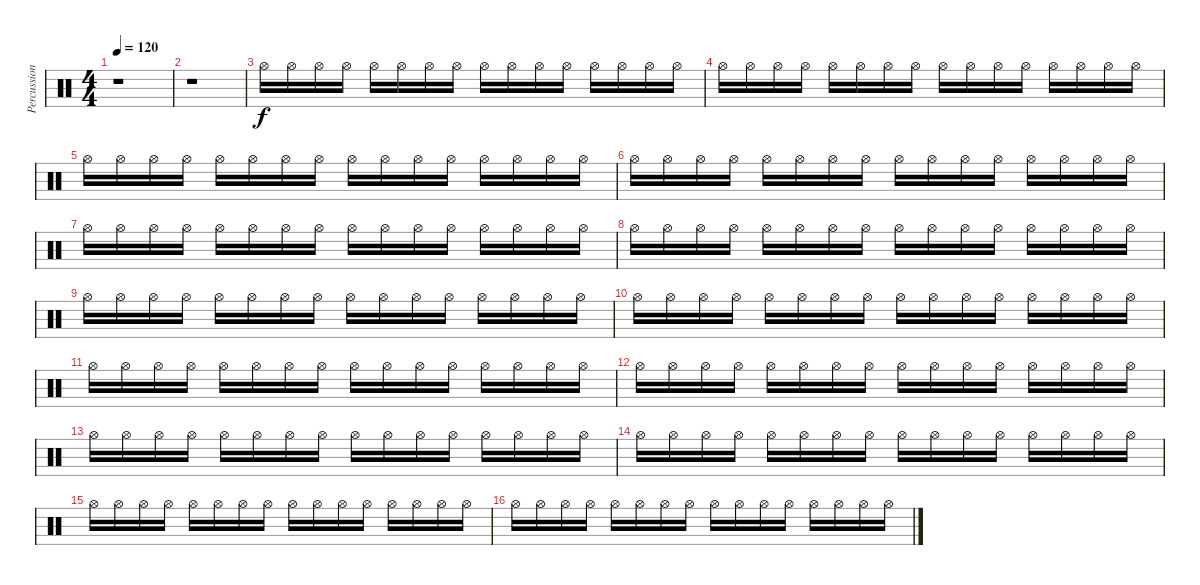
\track ("Percussion" "Percussion") {instrument percussion}
\staff {score}
\articulation defaults
\ts (4 4)
\tempo 120
\clef neutral
\ks c
r.1{dy f} |
r.1 |
"Hi-Hat (open)".16 "Hi-Hat (open)".16 "Hi-Hat (open)".16 "Hi-Hat (open)".16 "Hi-Hat (open)".16 "Hi-Hat (open)".16 "Hi-Hat (open)".16 "Hi-Hat (open)".16 "Hi-Hat (open)".16 "Hi-Hat (open)".16 "Hi-Hat (open)".16 "Hi-Hat (open)".16 "Hi-Hat (open)".16 "Hi-Hat (open)".16 "Hi-Hat (open)".16 "Hi-Hat (open)".16 |
"Hi-Hat (open)".16 "Hi-Hat (open)".16 "Hi-Hat (open)".16 "Hi-Hat (open)".16 "Hi-Hat (open)".16 "Hi-Hat (open)".16 "Hi-Hat (open)".16 "Hi-Hat (open)".16 "Hi-Hat (open)".16 "Hi-Hat (open)".16 "Hi-Hat (open)".16 "Hi-Hat (open)".16 "Hi-Hat (open)".16 "Hi-Hat (open)".16 "Hi-Hat (open)".16 "Hi-Hat (open)".16 |
"Hi-Hat (open)".16 "Hi-Hat (open)".16 "Hi-Hat (open)".16 "Hi-Hat (open)".16 "Hi-Hat (open)".16 "Hi-Hat (open)".16 "Hi-Hat (open)".16 "Hi-Hat (open)".16 "Hi-Hat (open)".16 "Hi-Hat (open)".16 "Hi-Hat (open)".16 "Hi-Hat (open)".16 "Hi-Hat (open)".16 "Hi-Hat (open)".16 "Hi-Hat (open)".16 "Hi-Hat (open)".16 |
"Hi-Hat (open)".16 "Hi-Hat (open)".16 "Hi-Hat (open)".16 "Hi-Hat (open)".16 "Hi-Hat (open)".16 "Hi-Hat (open)".16 "Hi-Hat (open)".16 "Hi-Hat (open)".16 "Hi-Hat (open)".16 "Hi-Hat (open)".16 "Hi-Hat (open)".16 "Hi-Hat (open)".16 "Hi-Hat (open)".16 "Hi-Hat (open)".16 "Hi-Hat (open)".16 "Hi-Hat (open)".16 |
"Hi-Hat (open)".16 "Hi-Hat (open)".16 "Hi-Hat (open)".16 "Hi-Hat (open)".16 "Hi-Hat (open)".16 "Hi-Hat (open)".16 "Hi-Hat (open)".16 "Hi-Hat (open)".16 "Hi-Hat (open)".16 "Hi-Hat (open)".16 "Hi-Hat (open)".16 "Hi-Hat (open)".16 "Hi-Hat (open)".16 "Hi-Hat (open)".16 "Hi-Hat (open)".16 "Hi-Hat (open)".16 |
"Hi-Hat (open)".16 "Hi-Hat (open)".16 "Hi-Hat (open)".16 "Hi-Hat (open)".16 "Hi-Hat (open)".16 "Hi-Hat (open)".16 "Hi-Hat (open)".16 "Hi-Hat (open)".16 "Hi-Hat (open)".16 "Hi-Hat (open)".16 "Hi-Hat (open)".16 "Hi-Hat (open)".16 "Hi-Hat (open)".16 "Hi-Hat (open)".16 "Hi-Hat (open)".16 "Hi-Hat (open)".16 |
"Hi-Hat (open)".16 "Hi-Hat (open)".16 "Hi-Hat (open)".16 "Hi-Hat (open)".16 "Hi-Hat (open)".16 "Hi-Hat (open)".16 "Hi-Hat (open)".16 "Hi-Hat (open)".16 "Hi-Hat (open)".16 "Hi-Hat (open)".16 "Hi-Hat (open)".16 "Hi-Hat (open)".16 "Hi-Hat (open)".16 "Hi-Hat (open)".16 "Hi-Hat (open)".16 "Hi-Hat (open)".16 |
"Hi-Hat (open)".16 "Hi-Hat (open)".16 "Hi-Hat (open)".16 "Hi-Hat (open)".16 "Hi-Hat (open)".16 "Hi-Hat (open)".16 "Hi-Hat (open)".16 "Hi-Hat (open)".16 "Hi-Hat (open)".16 "Hi-Hat (open)".16 "Hi-Hat (open)".16 "Hi-Hat (open)".16 "Hi-Hat (open)".16 "Hi-Hat (open)".16 "Hi-Hat (open)".16 "Hi-Hat (open)".16 |
"Hi-Hat (open)".16 "Hi-Hat (open)".16 "Hi-Hat (open)".16 "Hi-Hat (open)".16 "Hi-Hat (open)".16 "Hi-Hat (open)".16 "Hi-Hat (open)".16 "Hi-Hat (open)".16 "Hi-Hat (open)".16 "Hi-Hat (open)".16 "Hi-Hat (open)".16 "Hi-Hat (open)".16 "Hi-Hat (open)".16 "Hi-Hat (open)".16 "Hi-Hat (open)".16 "Hi-Hat (open)".16 |
"Hi-Hat (open)".16 "Hi-Hat (open)".16 "Hi-Hat (open)".16 "Hi-Hat (open)".16 "Hi-Hat (open)".16 "Hi-Hat (open)".16 "Hi-Hat (open)".16 "Hi-Hat (open)".16 "Hi-Hat (open)".16 "Hi-Hat (open)".16 "Hi-Hat (open)".16 "Hi-Hat (open)".16 "Hi-Hat (open)".16 "Hi-Hat (open)".16 "Hi-Hat (open)".16 "Hi-Hat (open)".16 |
"Hi-Hat (open)".16 "Hi-Hat (open)".16 "Hi-Hat (open)".16 "Hi-Hat (open)".16 "Hi-Hat (open)".16 "Hi-Hat (open)".16 "Hi-Hat (open)".16 "Hi-Hat (open)".16 "Hi-Hat (open)".16 "Hi-Hat (open)".16 "Hi-Hat (open)".16 "Hi-Hat (open)".16 "Hi-Hat (open)".16 "Hi-Hat (open)".16 "Hi-Hat (open)".16 "Hi-Hat (open)".16 |
"Hi-Hat (open)".16 "Hi-Hat (open)".16 "Hi-Hat (open)".16 "Hi-Hat (open)".16 "Hi-Hat (open)".16 "Hi-Hat (open)".16 "Hi-Hat (open)".16 "Hi-Hat (open)".16 "Hi-Hat (open)".16 "Hi-Hat (open)".16 "Hi-Hat (open)".16 "Hi-Hat (open)".16 "Hi-Hat (open)".16 "Hi-Hat (open)".16 "Hi-Hat (open)".16 "Hi-Hat (open)".16 |
"Hi-Hat (open)".16 "Hi-Hat (open)".16 "Hi-Hat (open)".16 "Hi-Hat (open)".16 "Hi-Hat (open)".16 "Hi-Hat (open)".16 "Hi-Hat (open)".16 "Hi-Hat (open)".16 "Hi-Hat (open)".16 "Hi-Hat (open)".16 "Hi-Hat (open)".16 "Hi-Hat (open)".16 "Hi-Hat (open)".16 "Hi-Hat (open)".16 "Hi-Hat (open)".16 "Hi-Hat (open)".16 |
"Hi-Hat (open)".16 "Hi-Hat (open)".16 "Hi-Hat (open)".16 "Hi-Hat (open)".16 "Hi-Hat (open)".16 "Hi-Hat (open)".16 "Hi-Hat (open)".16 "Hi-Hat (open)".16 "Hi-Hat (open)".16 "Hi-Hat (open)".16 "Hi-Hat (open)".16 "Hi-Hat (open)".16 "Hi-Hat (open)".16 "Hi-Hat (open)".16 "Hi-Hat (open)".16 "Hi-Hat (open)".16
